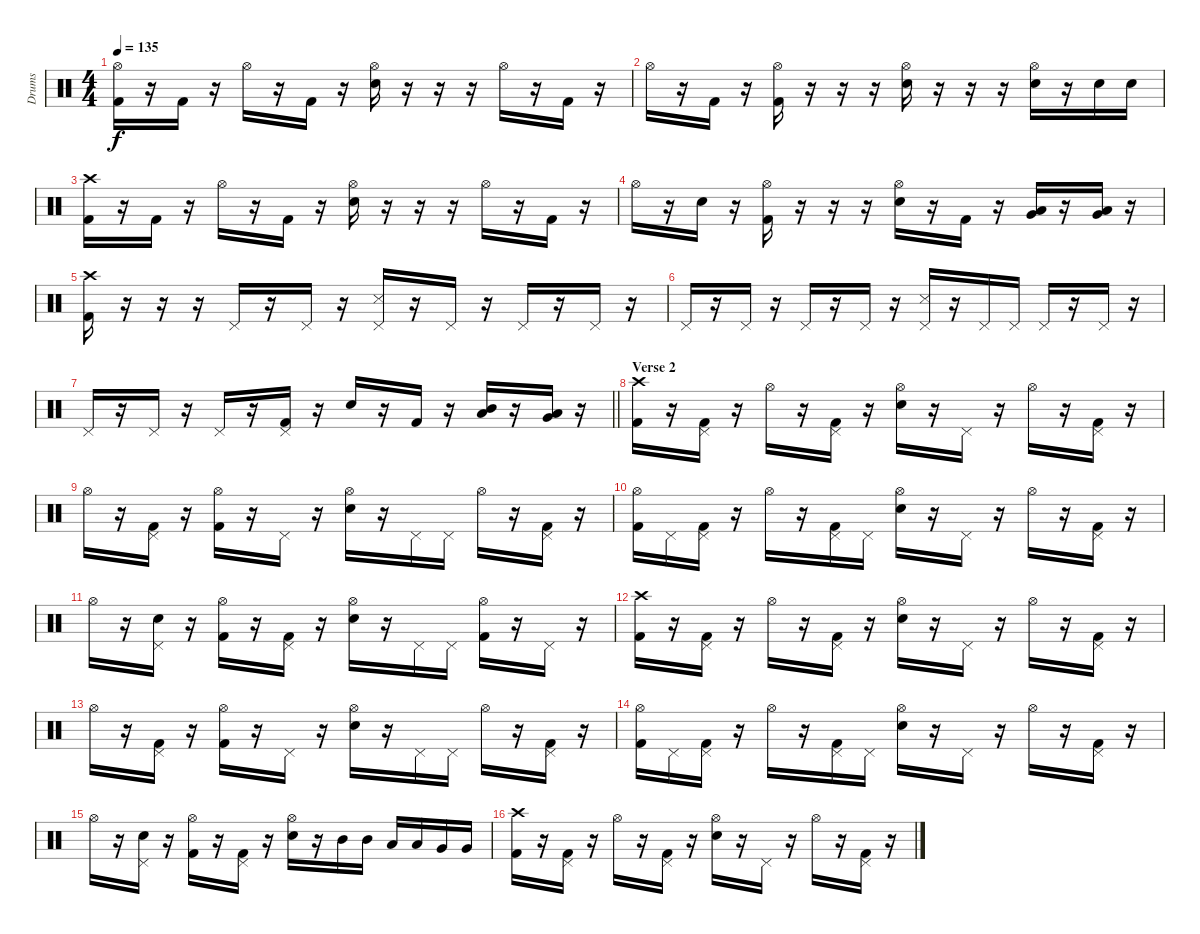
\track ("Drums" "Drums") {instrument percussion}
\staff {score}
\articulation defaults
\ts (4 4)
\tempo 135
\clef neutral
\ks c
("Hi-Hat (open)" "Kick (hit) 2").16{dy f} r.16 "Kick (hit) 2".16 r.16 "Hi-Hat (open)".16 r.16 "Kick (hit) 2".16 r.16 ("Hi-Hat (open)" "Snare (hit) 2").16 r.16 r.16 r.16 "Hi-Hat (open)".16 r.16 "Kick (hit) 2".16 r.16 |
"Hi-Hat (open)".16 r.16 "Kick (hit) 2".16 r.16 ("Hi-Hat (open)" "Kick (hit) 2").16 r.16 r.16 r.16 ("Hi-Hat (open)" "Snare (hit) 2").16 r.16 r.16 r.16 ("Hi-Hat (open)" "Snare (hit) 2").16 r.16 "Snare (hit) 2".16 "Snare (hit) 2".16 |
("Crash high (hit)" "Kick (hit) 2").16 r.16 "Kick (hit) 2".16 r.16 "Hi-Hat (open)".16 r.16 "Kick (hit) 2".16 r.16 ("Hi-Hat (open)" "Snare (hit) 2").16 r.16 r.16 r.16 "Hi-Hat (open)".16 r.16 "Kick (hit) 2".16 r.16 |
"Hi-Hat (open)".16 r.16 "Snare (hit) 2".16 r.16 ("Hi-Hat (open)" "Kick (hit) 2").16 r.16 r.16 r.16 ("Hi-Hat (open)" "Snare (hit) 2").16 r.16 "Kick (hit) 2".16 r.16 ("Low Tom (hit)" "Very Low Tom (hit)").16 r.16 ("Low Tom (hit)" "Very Low Tom (hit)").16 r.16 |
("Crash high (hit)" "Kick (hit) 2").16 r.16 r.16 r.16 "Pedal Hi-Hat (hit)".16 r.16 "Pedal Hi-Hat (hit)".16 r.16 ("Pedal Hi-Hat (hit)" "Snare (side stick) 3").16 r.16 "Pedal Hi-Hat (hit)".16 r.16 "Pedal Hi-Hat (hit)".16 r.16 "Pedal Hi-Hat (hit)".16 r.16 |
"Pedal Hi-Hat (hit)".16 r.16 "Pedal Hi-Hat (hit)".16 r.16 "Pedal Hi-Hat (hit)".16 r.16 "Pedal Hi-Hat (hit)".16 r.16 ("Pedal Hi-Hat (hit)" "Snare (side stick) 3").16 r.16 "Pedal Hi-Hat (hit)".16 "Pedal Hi-Hat (hit)".16 "Pedal Hi-Hat (hit)".16 r.16 "Pedal Hi-Hat (hit)".16 r.16 |
\barLineRight lightlight "Pedal Hi-Hat (hit)".16
r.16 "Pedal Hi-Hat (hit)".16 r.16 "Pedal Hi-Hat (hit)".16 r.16 ("Pedal Hi-Hat (hit)" "Kick (hit) 2").16 r.16 "Snare (hit) 2".16 r.16 "Kick (hit) 2".16 r.16 ("Mid Tom (hit)" "Low Tom (hit)").16 r.16 ("Low Tom (hit)" "Very Low Tom (hit)").16 r.16 |
\section ("" "Verse 2")
("Crash high (hit)" "Kick (hit) 2").16 r.16 ("Pedal Hi-Hat (hit)" "Kick (hit) 2").16 r.16 "Hi-Hat (open)".16 r.16 ("Pedal Hi-Hat (hit)" "Kick (hit) 2").16 r.16 ("Hi-Hat (open)" "Snare (hit) 2").16 r.16 "Pedal Hi-Hat (hit)".16 r.16 "Hi-Hat (open)".16 r.16 ("Pedal Hi-Hat (hit)" "Kick (hit) 2").16 r.16 |
"Hi-Hat (open)".16 r.16 ("Pedal Hi-Hat (hit)" "Kick (hit) 2").16 r.16 ("Hi-Hat (open)" "Kick (hit) 2").16 r.16 "Pedal Hi-Hat (hit)".16 r.16 ("Hi-Hat (open)" "Snare (hit) 2").16 r.16 "Pedal Hi-Hat (hit)".16 "Pedal Hi-Hat (hit)".16 "Hi-Hat (open)".16 r.16 ("Pedal Hi-Hat (hit)" "Kick (hit) 2").16 r.16 |
("Hi-Hat (open)" "Kick (hit) 2").16 "Pedal Hi-Hat (hit)".16 ("Pedal Hi-Hat (hit)" "Kick (hit) 2").16 r.16 "Hi-Hat (open)".16 r.16 ("Pedal Hi-Hat (hit)" "Kick (hit) 2").16 "Pedal Hi-Hat (hit)".16 ("Hi-Hat (open)" "Snare (hit) 2").16 r.16 "Pedal Hi-Hat (hit)".16 r.16 "Hi-Hat (open)".16 r.16 ("Pedal Hi-Hat (hit)" "Kick (hit) 2").16 r.16 |
"Hi-Hat (open)".16 r.16 ("Pedal Hi-Hat (hit)" "Snare (hit) 2").16 r.16 ("Hi-Hat (open)" "Kick (hit) 2").16 r.16 ("Pedal Hi-Hat (hit)" "Kick (hit) 2").16 r.16 ("Hi-Hat (open)" "Snare (hit) 2").16 r.16 "Pedal Hi-Hat (hit)".16 "Pedal Hi-Hat (hit)".16 ("Hi-Hat (open)" "Kick (hit) 2").16 r.16 "Pedal Hi-Hat (hit)".16 r.16 |
("Crash high (hit)" "Kick (hit) 2").16 r.16 ("Pedal Hi-Hat (hit)" "Kick (hit) 2").16 r.16 "Hi-Hat (open)".16 r.16 ("Pedal Hi-Hat (hit)" "Kick (hit) 2").16 r.16 ("Hi-Hat (open)" "Snare (hit) 2").16 r.16 "Pedal Hi-Hat (hit)".16 r.16 "Hi-Hat (open)".16 r.16 ("Pedal Hi-Hat (hit)" "Kick (hit) 2").16 r.16 |
"Hi-Hat (open)".16 r.16 ("Pedal Hi-Hat (hit)" "Kick (hit) 2").16 r.16 ("Hi-Hat (open)" "Kick (hit) 2").16 r.16 "Pedal Hi-Hat (hit)".16 r.16 ("Hi-Hat (open)" "Snare (hit) 2").16 r.16 "Pedal Hi-Hat (hit)".16 "Pedal Hi-Hat (hit)".16 "Hi-Hat (open)".16 r.16 ("Pedal Hi-Hat (hit)" "Kick (hit) 2").16 r.16 |
("Hi-Hat (open)" "Kick (hit) 2").16 "Pedal Hi-Hat (hit)".16 ("Pedal Hi-Hat (hit)" "Kick (hit) 2").16 r.16 "Hi-Hat (open)".16 r.16 ("Pedal Hi-Hat (hit)" "Kick (hit) 2").16 "Pedal Hi-Hat (hit)".16 ("Hi-Hat (open)" "Snare (hit) 2").16 r.16 "Pedal Hi-Hat (hit)".16 r.16 "Hi-Hat (open)".16 r.16 ("Pedal Hi-Hat (hit)" "Kick (hit) 2").16 r.16 |
"Hi-Hat (open)".16 r.16 ("Pedal Hi-Hat (hit)" "Snare (hit) 2").16 r.16 ("Hi-Hat (open)" "Kick (hit) 2").16 r.16 ("Pedal Hi-Hat (hit)" "Kick (hit) 2").16 r.16 ("Hi-Hat (open)" "Snare (hit) 2").16 r.16 "Mid Tom (hit)".16 "Mid Tom (hit)".16 "Low Tom (hit)".16 "Low Tom (hit)".16 "Very Low Tom (hit)".16 "Very Low Tom (hit)".16 |
("Crash high (hit)" "Kick (hit) 2").16 r.16 ("Pedal Hi-Hat (hit)" "Kick (hit) 2").16 r.16 "Hi-Hat (open)".16 r.16 ("Pedal Hi-Hat (hit)" "Kick (hit) 2").16 r.16 ("Hi-Hat (open)" "Snare (hit) 2").16 r.16 "Pedal Hi-Hat (hit)".16 r.16 "Hi-Hat (open)".16 r.16 ("Pedal Hi-Hat (hit)" "Kick (hit) 2").16 r.16
